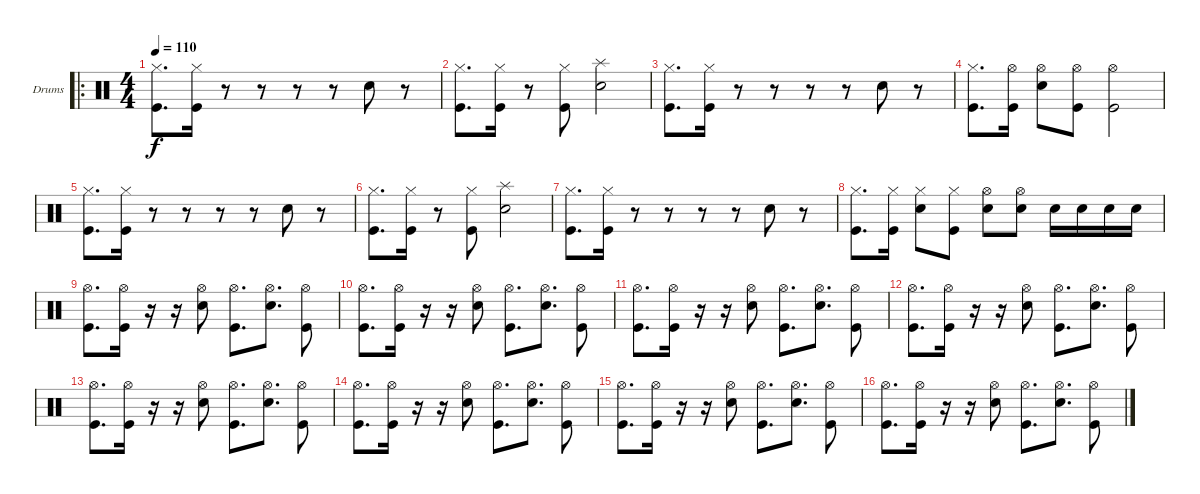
\bracketExtendMode groupsimilarinstruments
\firstSystemTrackNameOrientation horizontal
\otherSystemsTrackNameOrientation horizontal
\track ("Drumkit" "Drums") {instrument percussion}
\staff {score}
\articulation defaults
\ro
\ts (4 4)
\beaming (8 2 2 2 2)
\tempo 110
\clef neutral
\scale
0.5
\ks c
("Kick (hit)" "Hi-Hat (closed)").8{d dy f} ("Kick (hit)" "Hi-Hat (closed)").16 r.8 r.8 r.8 r.8 "Snare (hit) 2".8 r.8 |
\scale
0.25 ("Kick (hit)" "Hi-Hat (closed)").8{d} ("Kick (hit)" "Hi-Hat (closed)").16 r.8 ("Kick (hit)" "Hi-Hat (closed)").8 ("Splash (hit)" "Snare (hit) 2").2 |
\scale
0.25 ("Kick (hit)" "Hi-Hat (closed)").8{d} ("Kick (hit)" "Hi-Hat (closed)").16 r.8 r.8 r.8 r.8 "Snare (hit) 2".8 r.8 |
\scale
0.333333 ("Kick (hit)" "Hi-Hat (closed)").8{d} ("Kick (hit)" "Hi-Hat (open)").16 ("Snare (hit) 2" "Hi-Hat (open)").8 ("Kick (hit)" "Hi-Hat (open)").8 ("Kick (hit)" "Hi-Hat (open)").2 |
\scale
0.333333 ("Kick (hit)" "Hi-Hat (closed)").8{d} ("Kick (hit)" "Hi-Hat (closed)").16 r.8 r.8 r.8 r.8 "Snare (hit) 2".8 r.8 |
\scale
0.333333 ("Kick (hit)" "Hi-Hat (closed)").8{d} ("Kick (hit)" "Hi-Hat (closed)").16 r.8 ("Kick (hit)" "Hi-Hat (closed)").8 ("Splash (hit)" "Snare (hit) 2").2 |
\scale
0.333333 ("Kick (hit)" "Hi-Hat (closed)").8{d} ("Kick (hit)" "Hi-Hat (closed)").16 r.8 r.8 r.8 r.8 "Snare (hit) 2".8 r.8 |
\scale
0.333333 ("Kick (hit)" "Hi-Hat (closed)").8{d} ("Kick (hit)" "Hi-Hat (closed)").16 ("Snare (hit) 2" "Hi-Hat (closed)").8 ("Kick (hit)" "Hi-Hat (closed)").8 ("Snare (hit) 2" "Hi-Hat (open)").8 ("Snare (hit) 2" "Hi-Hat (open)").8 "Snare (hit) 2".16 "Snare (hit) 2".16 "Snare (hit) 2".16 "Snare (hit) 2".16 |
\scale
0.333333 ("Kick (hit)" "Hi-Hat (open)").8{d} ("Kick (hit)" "Hi-Hat (open)").16 r.16 r.16 ("Hi-Hat (open)" "Snare (hit) 2").8 ("Kick (hit)" "Hi-Hat (open)").8{d} ("Snare (hit) 2" "Hi-Hat (open)").8{d} ("Kick (hit)" "Hi-Hat (open)").8 |
\scale
0.333333 ("Kick (hit)" "Hi-Hat (open)").8{d} ("Kick (hit)" "Hi-Hat (open)").16 r.16 r.16 ("Hi-Hat (open)" "Snare (hit) 2").8 ("Kick (hit)" "Hi-Hat (open)").8{d} ("Snare (hit) 2" "Hi-Hat (open)").8{d} ("Kick (hit)" "Hi-Hat (open)").8 |
\scale
0.333333 ("Kick (hit)" "Hi-Hat (open)").8{d} ("Kick (hit)" "Hi-Hat (open)").16 r.16 r.16 ("Hi-Hat (open)" "Snare (hit) 2").8 ("Kick (hit)" "Hi-Hat (open)").8{d} ("Snare (hit) 2" "Hi-Hat (open)").8{d} ("Kick (hit)" "Hi-Hat (open)").8 |
\scale
0.333333 ("Kick (hit)" "Hi-Hat (open)").8{d} ("Kick (hit)" "Hi-Hat (open)").16 r.16 r.16 ("Hi-Hat (open)" "Snare (hit) 2").8 ("Kick (hit)" "Hi-Hat (open)").8{d} ("Snare (hit) 2" "Hi-Hat (open)").8{d} ("Kick (hit)" "Hi-Hat (open)").8 |
\scale
0.333333 ("Kick (hit)" "Hi-Hat (open)").8{d} ("Kick (hit)" "Hi-Hat (open)").16 r.16 r.16 ("Hi-Hat (open)" "Snare (hit) 2").8 ("Kick (hit)" "Hi-Hat (open)").8{d} ("Snare (hit) 2" "Hi-Hat (open)").8{d} ("Kick (hit)" "Hi-Hat (open)").8 |
\scale
0.333333 ("Kick (hit)" "Hi-Hat (open)").8{d} ("Kick (hit)" "Hi-Hat (open)").16 r.16 r.16 ("Hi-Hat (open)" "Snare (hit) 2").8 ("Kick (hit)" "Hi-Hat (open)").8{d} ("Snare (hit) 2" "Hi-Hat (open)").8{d} ("Kick (hit)" "Hi-Hat (open)").8 |
\scale
0.333333 ("Kick (hit)" "Hi-Hat (open)").8{d} ("Kick (hit)" "Hi-Hat (open)").16 r.16 r.16 ("Hi-Hat (open)" "Snare (hit) 2").8 ("Kick (hit)" "Hi-Hat (open)").8{d} ("Snare (hit) 2" "Hi-Hat (open)").8{d} ("Kick (hit)" "Hi-Hat (open)").8 |
\scale
0.333333 ("Kick (hit)" "Hi-Hat (open)").8{d} ("Kick (hit)" "Hi-Hat (open)").16 r.16 r.16 ("Hi-Hat (open)" "Snare (hit) 2").8 ("Kick (hit)" "Hi-Hat (open)").8{d} ("Snare (hit) 2" "Hi-Hat (open)").8{d} ("Kick (hit)" "Hi-Hat (open)").8
